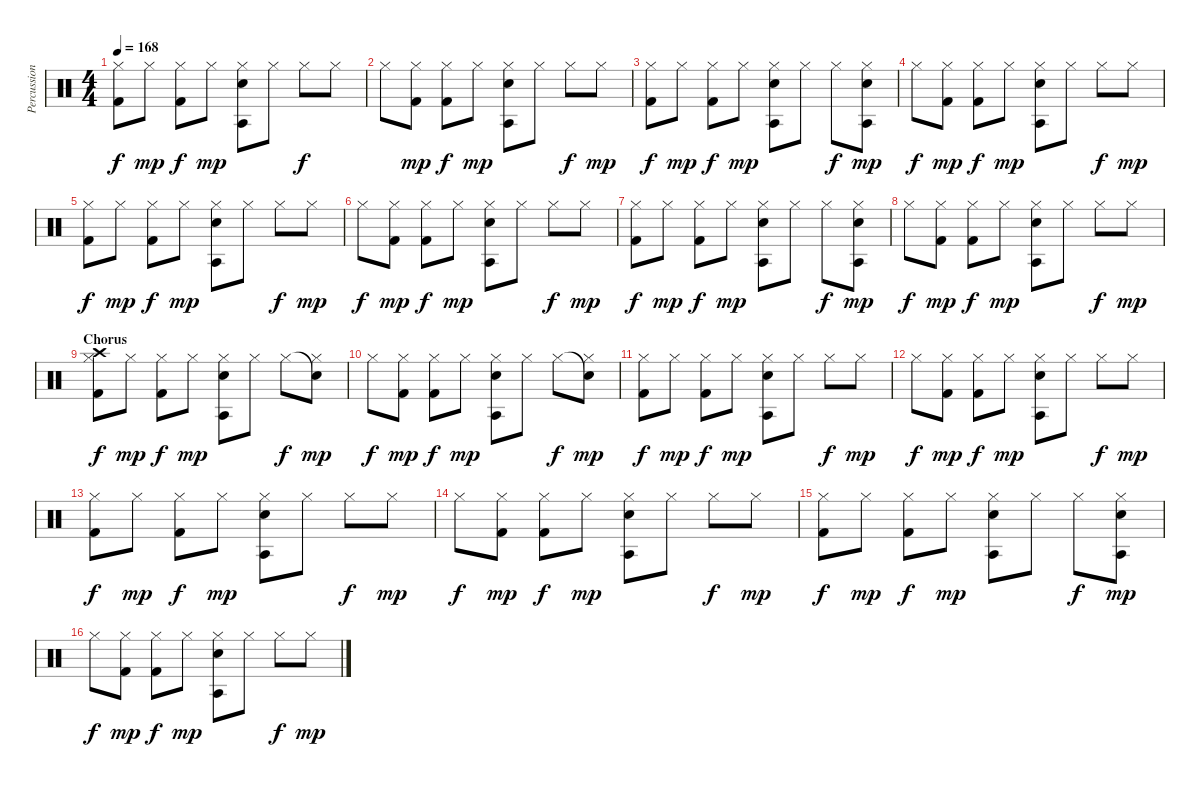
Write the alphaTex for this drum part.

\track ("Percussion" "Percussion") {instrument percussion}
\staff {score}
\articulation defaults
\ts (4 4)
\tempo 168
\clef neutral
\ks c
("Hi-Hat (closed)" "Kick (hit) 2").8{dy f} "Hi-Hat (closed)".8{dy mp} ("Hi-Hat (closed)" "Kick (hit) 2").8{dy f} "Hi-Hat (closed)".8{dy mp} ("Hi-Hat (closed)" "Agogo tow (hit)" "Electric Snare (hit)").8 "Hi-Hat (closed)".8 "Hi-Hat (closed)".8{dy f} "Hi-Hat (closed)".8 |
"Hi-Hat (closed)".8 ("Hi-Hat (closed)" "Kick (hit) 2").8{dy mp} ("Hi-Hat (closed)" "Kick (hit) 2").8{dy f} "Hi-Hat (closed)".8{dy mp} ("Hi-Hat (closed)" "Agogo tow (hit)" "Electric Snare (hit)").8 "Hi-Hat (closed)".8 "Hi-Hat (closed)".8{dy f} "Hi-Hat (closed)".8{dy mp} |
("Hi-Hat (closed)" "Kick (hit) 2").8{dy f} "Hi-Hat (closed)".8{dy mp} ("Hi-Hat (closed)" "Kick (hit) 2").8{dy f} "Hi-Hat (closed)".8{dy mp} ("Hi-Hat (closed)" "Agogo tow (hit)" "Electric Snare (hit)").8 "Hi-Hat (closed)".8 "Hi-Hat (closed)".8{dy f} ("Hi-Hat (closed)" "Agogo tow (hit)" "Electric Snare (hit)").8{dy mp} |
"Hi-Hat (closed)".8{dy f} ("Hi-Hat (closed)" "Kick (hit) 2").8{dy mp} ("Hi-Hat (closed)" "Kick (hit) 2").8{dy f} "Hi-Hat (closed)".8{dy mp} ("Hi-Hat (closed)" "Agogo tow (hit)" "Electric Snare (hit)").8 "Hi-Hat (closed)".8 "Hi-Hat (closed)".8{dy f} "Hi-Hat (closed)".8{dy mp} |
("Hi-Hat (closed)" "Kick (hit) 2").8{dy f} "Hi-Hat (closed)".8{dy mp} ("Hi-Hat (closed)" "Kick (hit) 2").8{dy f} "Hi-Hat (closed)".8{dy mp} ("Hi-Hat (closed)" "Agogo tow (hit)" "Electric Snare (hit)").8 "Hi-Hat (closed)".8 "Hi-Hat (closed)".8{dy f} "Hi-Hat (closed)".8{dy mp} |
"Hi-Hat (closed)".8{dy f} ("Hi-Hat (closed)" "Kick (hit) 2").8{dy mp} ("Hi-Hat (closed)" "Kick (hit) 2").8{dy f} "Hi-Hat (closed)".8{dy mp} ("Hi-Hat (closed)" "Agogo tow (hit)" "Electric Snare (hit)").8 "Hi-Hat (closed)".8 "Hi-Hat (closed)".8{dy f} "Hi-Hat (closed)".8{dy mp} |
("Hi-Hat (closed)" "Kick (hit) 2").8{dy f} "Hi-Hat (closed)".8{dy mp} ("Hi-Hat (closed)" "Kick (hit) 2").8{dy f} "Hi-Hat (closed)".8{dy mp} ("Hi-Hat (closed)" "Agogo tow (hit)" "Electric Snare (hit)").8 "Hi-Hat (closed)".8 "Hi-Hat (closed)".8{dy f} ("Hi-Hat (closed)" "Agogo tow (hit)" "Electric Snare (hit)").8{dy mp} |
"Hi-Hat (closed)".8{dy f} ("Hi-Hat (closed)" "Kick (hit) 2").8{dy mp} ("Hi-Hat (closed)" "Kick (hit) 2").8{dy f} "Hi-Hat (closed)".8{dy mp} ("Hi-Hat (closed)" "Agogo tow (hit)" "Electric Snare (hit)").8 "Hi-Hat (closed)".8 "Hi-Hat (closed)".8{dy f} "Hi-Hat (closed)".8{dy mp} |
\section ("" "Chorus")
("Crash high (hit)" "Hi-Hat (closed)" "Kick (hit) 2").8{dy f} "Hi-Hat (closed)".8{dy mp} ("Hi-Hat (closed)" "Kick (hit) 2").8{dy f} "Hi-Hat (closed)".8{dy mp} ("Hi-Hat (closed)" "Agogo tow (hit)" "Electric Snare (hit)").8 "Hi-Hat (closed)".8 "Hi-Hat (closed)".8{dy f} ("Snare (hit)"{t} "Hi-Hat (closed)").8{dy mp} |
"Hi-Hat (closed)".8{dy f} ("Hi-Hat (closed)" "Kick (hit) 2").8{dy mp} ("Hi-Hat (closed)" "Kick (hit) 2").8{dy f} "Hi-Hat (closed)".8{dy mp} ("Hi-Hat (closed)" "Agogo tow (hit)" "Electric Snare (hit)").8 "Hi-Hat (closed)".8 "Hi-Hat (closed)".8{dy f} ("Snare (hit)"{t} "Hi-Hat (closed)").8{dy mp} |
("Hi-Hat (closed)" "Kick (hit) 2").8{dy f} "Hi-Hat (closed)".8{dy mp} ("Hi-Hat (closed)" "Kick (hit) 2").8{dy f} "Hi-Hat (closed)".8{dy mp} ("Hi-Hat (closed)" "Agogo tow (hit)" "Electric Snare (hit)").8 "Hi-Hat (closed)".8 "Hi-Hat (closed)".8{dy f} "Hi-Hat (closed)".8{dy mp} |
"Hi-Hat (closed)".8{dy f} ("Hi-Hat (closed)" "Kick (hit) 2").8{dy mp} ("Hi-Hat (closed)" "Kick (hit) 2").8{dy f} "Hi-Hat (closed)".8{dy mp} ("Hi-Hat (closed)" "Agogo tow (hit)" "Electric Snare (hit)").8 "Hi-Hat (closed)".8 "Hi-Hat (closed)".8{dy f} "Hi-Hat (closed)".8{dy mp} |
("Hi-Hat (closed)" "Kick (hit) 2").8{dy f} "Hi-Hat (closed)".8{dy mp} ("Hi-Hat (closed)" "Kick (hit) 2").8{dy f} "Hi-Hat (closed)".8{dy mp} ("Hi-Hat (closed)" "Agogo tow (hit)" "Electric Snare (hit)").8 "Hi-Hat (closed)".8 "Hi-Hat (closed)".8{dy f} "Hi-Hat (closed)".8{dy mp} |
"Hi-Hat (closed)".8{dy f} ("Hi-Hat (closed)" "Kick (hit) 2").8{dy mp} ("Hi-Hat (closed)" "Kick (hit) 2").8{dy f} "Hi-Hat (closed)".8{dy mp} ("Hi-Hat (closed)" "Agogo tow (hit)" "Electric Snare (hit)").8 "Hi-Hat (closed)".8 "Hi-Hat (closed)".8{dy f} "Hi-Hat (closed)".8{dy mp} |
("Hi-Hat (closed)" "Kick (hit) 2").8{dy f} "Hi-Hat (closed)".8{dy mp} ("Hi-Hat (closed)" "Kick (hit) 2").8{dy f} "Hi-Hat (closed)".8{dy mp} ("Hi-Hat (closed)" "Agogo tow (hit)" "Electric Snare (hit)").8 "Hi-Hat (closed)".8 "Hi-Hat (closed)".8{dy f} ("Hi-Hat (closed)" "Agogo tow (hit)" "Electric Snare (hit)").8{dy mp} |
"Hi-Hat (closed)".8{dy f} ("Hi-Hat (closed)" "Kick (hit) 2").8{dy mp} ("Hi-Hat (closed)" "Kick (hit) 2").8{dy f} "Hi-Hat (closed)".8{dy mp} ("Hi-Hat (closed)" "Agogo tow (hit)" "Electric Snare (hit)").8 "Hi-Hat (closed)".8 "Hi-Hat (closed)".8{dy f} "Hi-Hat (closed)".8{dy mp}
